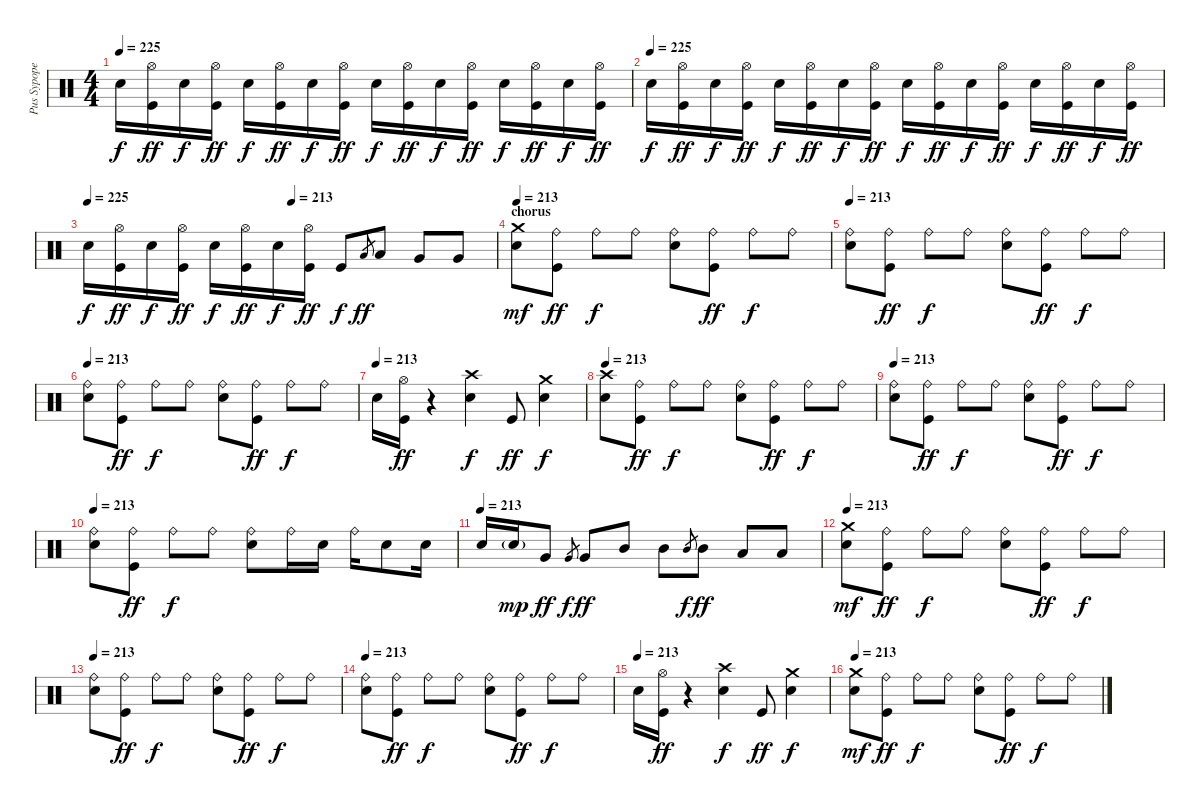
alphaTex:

\track ("Pus Sypope" "Pus Sypope") {instrument percussion}
\staff {score}
\articulation defaults
\ts (4 4)
\tempo 225
\clef neutral
\ks c "Snare (hit) 2".16{dy f}
("Hi-Hat (open)" "Kick (hit)").16{dy ff} "Snare (hit) 2".16{dy f} ("Hi-Hat (open)" "Kick (hit)").16{dy ff} "Snare (hit) 2".16{dy f} ("Hi-Hat (open)" "Kick (hit)").16{dy ff} "Snare (hit) 2".16{dy f} ("Hi-Hat (open)" "Kick (hit)").16{dy ff} "Snare (hit) 2".16{dy f} ("Hi-Hat (open)" "Kick (hit)").16{dy ff} "Snare (hit) 2".16{dy f} ("Hi-Hat (open)" "Kick (hit)").16{dy ff} "Snare (hit) 2".16{dy f} ("Hi-Hat (open)" "Kick (hit)").16{dy ff} "Snare (hit) 2".16{dy f} ("Hi-Hat (open)" "Kick (hit)").16{dy ff} |
\tempo (225)
"Snare (hit) 2".16{dy f} ("Hi-Hat (open)" "Kick (hit)").16{dy ff} "Snare (hit) 2".16{dy f} ("Hi-Hat (open)" "Kick (hit)").16{dy ff} "Snare (hit) 2".16{dy f} ("Hi-Hat (open)" "Kick (hit)").16{dy ff} "Snare (hit) 2".16{dy f} ("Hi-Hat (open)" "Kick (hit)").16{dy ff} "Snare (hit) 2".16{dy f} ("Hi-Hat (open)" "Kick (hit)").16{dy ff} "Snare (hit) 2".16{dy f} ("Hi-Hat (open)" "Kick (hit)").16{dy ff} "Snare (hit) 2".16{dy f} ("Hi-Hat (open)" "Kick (hit)").16{dy ff} "Snare (hit) 2".16{dy f} ("Hi-Hat (open)" "Kick (hit)").16{dy ff} |
\tempo 225
\tempo (213 0.5)
"Snare (hit) 2".16{dy f} ("Hi-Hat (open)" "Kick (hit)").16{dy ff} "Snare (hit) 2".16{dy f} ("Hi-Hat (open)" "Kick (hit)").16{dy ff} "Snare (hit) 2".16{dy f} ("Hi-Hat (open)" "Kick (hit)").16{dy ff} "Snare (hit) 2".16{dy f} ("Hi-Hat (open)" "Kick (hit)").16{dy ff} "Kick (hit)".8{dy f} "Low Tom (hit)".8{gr dy ff} "Low Tom (hit)".8 "Very Low Tom (hit)".8 "Very Low Tom (hit)".8 |
\section ("" "chorus")
\tempo 213
("Crash medium (hit)" "Snare (hit) 2").8{dy mf} ("Ride (bell)" "Kick (hit)").8{dy ff} "Ride (bell)".8{dy f} "Ride (bell)".8 ("Ride (bell)" "Snare (hit) 2").8 ("Ride (bell)" "Kick (hit)").8{dy ff} "Ride (bell)".8{dy f} "Ride (bell)".8 |
\tempo 213
("Ride (bell)" "Snare (hit) 2").8 ("Ride (bell)" "Kick (hit)").8{dy ff} "Ride (bell)".8{dy f} "Ride (bell)".8 ("Ride (bell)" "Snare (hit) 2").8 ("Ride (bell)" "Kick (hit)").8{dy ff} "Ride (bell)".8{dy f} "Ride (bell)".8 |
\tempo 213
("Ride (bell)" "Snare (hit) 2").8 ("Ride (bell)" "Kick (hit)").8{dy ff} "Ride (bell)".8{dy f} "Ride (bell)".8 ("Ride (bell)" "Snare (hit) 2").8 ("Ride (bell)" "Kick (hit)").8{dy ff} "Ride (bell)".8{dy f} "Ride (bell)".8 |
\tempo (213)
"Snare (hit) 2".16 ("Hi-Hat (open)" "Kick (hit)").16{dy ff} r.4 ("Crash high (hit)" "Snare (hit) 2").4{dy f} "Kick (hit)".8{dy ff} ("Crash medium (hit)" "Snare (hit) 2").4{dy f} |
\tempo 213
("Crash high (hit)" "Snare (hit) 2").8 ("Ride (bell)" "Kick (hit)").8{dy ff} "Ride (bell)".8{dy f} "Ride (bell)".8 ("Ride (bell)" "Snare (hit) 2").8 ("Ride (bell)" "Kick (hit)").8{dy ff} "Ride (bell)".8{dy f} "Ride (bell)".8 |
\tempo 213
("Ride (bell)" "Snare (hit) 2").8 ("Ride (bell)" "Kick (hit)").8{dy ff} "Ride (bell)".8{dy f} "Ride (bell)".8 ("Ride (bell)" "Snare (hit) 2").8 ("Ride (bell)" "Kick (hit)").8{dy ff} "Ride (bell)".8{dy f} "Ride (bell)".8 |
\tempo 213
("Ride (bell)" "Snare (hit) 2").8 ("Ride (bell)" "Kick (hit)").8{dy ff} "Ride (bell)".8{dy f} "Ride (bell)".8 ("Ride (bell)" "Snare (hit) 2").8 "Ride (bell)".16{balance 12} "Snare (hit) 2".16{balance 8} "Ride (bell)".16{balance 11} "Snare (hit) 2".8{balance 8} "Snare (hit) 2".16 |
\tempo (213)
"Snare (hit) 2".16 "Snare (hit) 2"{g}.16{dy mp} "Very Low Tom (hit)".8{dy ff} "Very Low Tom (hit)".8{gr dy f} "Very Low Tom (hit)".8{dy ff} "Mid Tom (hit)".8 "Mid Tom (hit)".8 "Mid Tom (hit)".8{gr dy f} "Mid Tom (hit)".8{dy ff} "Low Tom (hit)".8 "Low Tom (hit)".8 |
\tempo 213
("Crash medium (hit)" "Snare (hit) 2").8{dy mf} ("Ride (bell)" "Kick (hit)").8{dy ff} "Ride (bell)".8{dy f} "Ride (bell)".8 ("Ride (bell)" "Snare (hit) 2").8 ("Ride (bell)" "Kick (hit)").8{dy ff} "Ride (bell)".8{dy f} "Ride (bell)".8 |
\tempo 213
("Ride (bell)" "Snare (hit) 2").8 ("Ride (bell)" "Kick (hit)").8{dy ff} "Ride (bell)".8{dy f} "Ride (bell)".8 ("Ride (bell)" "Snare (hit) 2").8 ("Ride (bell)" "Kick (hit)").8{dy ff} "Ride (bell)".8{dy f} "Ride (bell)".8 |
\tempo 213
("Ride (bell)" "Snare (hit) 2").8 ("Ride (bell)" "Kick (hit)").8{dy ff} "Ride (bell)".8{dy f} "Ride (bell)".8 ("Ride (bell)" "Snare (hit) 2").8 ("Ride (bell)" "Kick (hit)").8{dy ff} "Ride (bell)".8{dy f} "Ride (bell)".8 |
\tempo (213)
"Snare (hit) 2".16 ("Hi-Hat (open)" "Kick (hit)").16{dy ff} r.4 ("Crash high (hit)" "Snare (hit) 2").4{dy f} "Kick (hit)".8{dy ff} ("Crash medium (hit)" "Snare (hit) 2").4{dy f} |
\tempo 213
("Crash medium (hit)" "Snare (hit) 2").8{dy mf} ("Ride (bell)" "Kick (hit)").8{dy ff} "Ride (bell)".8{dy f} "Ride (bell)".8 ("Ride (bell)" "Snare (hit) 2").8 ("Ride (bell)" "Kick (hit)").8{dy ff} "Ride (bell)".8{dy f} "Ride (bell)".8
